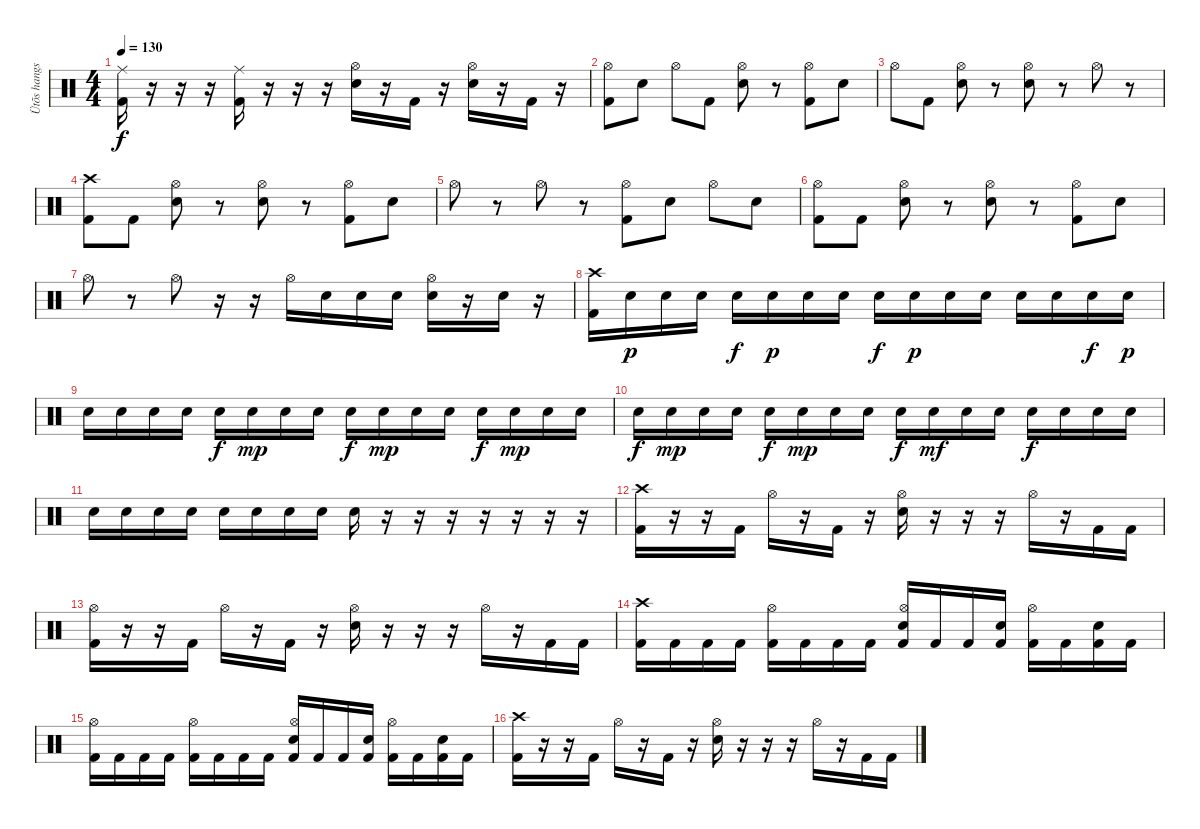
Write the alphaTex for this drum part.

\track ("Ütõs hangszer" "Ütõs hangs") {instrument percussion}
\staff {score}
\articulation defaults
\ts (4 4)
\tempo 130
\clef neutral
\ks c
("Ride (middle)" "Kick (hit) 2").16{dy f} r.16 r.16 r.16 ("Ride (middle)" "Kick (hit) 2").16 r.16 r.16 r.16 ("Hi-Hat (open)" "Snare (hit) 2").16 r.16 "Kick (hit) 2".16 r.16 ("Hi-Hat (open)" "Snare (hit) 2").16 r.16 "Kick (hit) 2".16 r.16 |
("Hi-Hat (open)" "Kick (hit) 2").8 "Snare (hit) 2".8 "Hi-Hat (open)".8 "Kick (hit) 2".8 ("Hi-Hat (open)" "Snare (hit) 2").8 r.8 ("Hi-Hat (open)" "Kick (hit) 2").8 "Snare (hit) 2".8 |
"Hi-Hat (open)".8 "Kick (hit) 2".8 ("Hi-Hat (open)" "Snare (hit) 2").8 r.8 ("Hi-Hat (open)" "Snare (hit) 2").8 r.8 "Hi-Hat (open)".8 r.8 |
("Crash high (hit)" "Kick (hit) 2").8 "Kick (hit) 2".8 ("Hi-Hat (open)" "Snare (hit) 2").8 r.8 ("Hi-Hat (open)" "Snare (hit) 2").8 r.8 ("Hi-Hat (open)" "Kick (hit) 2").8 "Snare (hit) 2".8 |
"Hi-Hat (open)".8 r.8 "Hi-Hat (open)".8 r.8 ("Hi-Hat (open)" "Kick (hit) 2").8 "Snare (hit) 2".8 "Hi-Hat (open)".8 "Snare (hit) 2".8 |
("Hi-Hat (open)" "Kick (hit) 2").8 "Kick (hit) 2".8 ("Hi-Hat (open)" "Snare (hit) 2").8 r.8 ("Hi-Hat (open)" "Snare (hit) 2").8 r.8 ("Hi-Hat (open)" "Kick (hit) 2").8 "Snare (hit) 2".8 |
"Hi-Hat (open)".8 r.8 "Hi-Hat (open)".8 r.16 r.16 "Hi-Hat (open)".16 "Snare (hit) 2".16 "Snare (hit) 2".16 "Snare (hit) 2".16 ("Hi-Hat (open)" "Snare (hit) 2").16 r.16 "Snare (hit) 2".16 r.16 |
("Crash high (hit)" "Kick (hit) 2").16 "Snare (hit) 2".16{dy p} "Snare (hit) 2".16 "Snare (hit) 2".16 "Snare (hit) 2".16{dy f} "Snare (hit) 2".16{dy p} "Snare (hit) 2".16 "Snare (hit) 2".16 "Snare (hit) 2".16{dy f} "Snare (hit) 2".16{dy p} "Snare (hit) 2".16 "Snare (hit) 2".16 "Snare (hit) 2".16 "Snare (hit) 2".16 "Snare (hit) 2".16{dy f} "Snare (hit) 2".16{dy p} |
"Snare (hit) 2".16 "Snare (hit) 2".16 "Snare (hit) 2".16 "Snare (hit) 2".16 "Snare (hit) 2".16{dy f} "Snare (hit) 2".16{dy mp} "Snare (hit) 2".16 "Snare (hit) 2".16 "Snare (hit) 2".16{dy f} "Snare (hit) 2".16{dy mp} "Snare (hit) 2".16 "Snare (hit) 2".16 "Snare (hit) 2".16{dy f} "Snare (hit) 2".16{dy mp} "Snare (hit) 2".16 "Snare (hit) 2".16 |
"Snare (hit) 2".16{dy f} "Snare (hit) 2".16{dy mp} "Snare (hit) 2".16 "Snare (hit) 2".16 "Snare (hit) 2".16{dy f} "Snare (hit) 2".16{dy mp} "Snare (hit) 2".16 "Snare (hit) 2".16 "Snare (hit) 2".16{dy f} "Snare (hit) 2".16{dy mf} "Snare (hit) 2".16 "Snare (hit) 2".16 "Snare (hit) 2".16{dy f} "Snare (hit) 2".16 "Snare (hit) 2".16 "Snare (hit) 2".16 |
"Snare (hit) 2".16 "Snare (hit) 2".16 "Snare (hit) 2".16 "Snare (hit) 2".16 "Snare (hit) 2".16 "Snare (hit) 2".16 "Snare (hit) 2".16 "Snare (hit) 2".16 "Snare (hit) 2".16 r.16 r.16 r.16 r.16 r.16 r.16 r.16 |
("Crash high (hit)" "Kick (hit) 2").16 r.16 r.16 "Kick (hit) 2".16 "Hi-Hat (open)".16 r.16 "Kick (hit) 2".16 r.16 ("Hi-Hat (open)" "Snare (hit) 2").16 r.16 r.16 r.16 "Hi-Hat (open)".16 r.16 "Kick (hit) 2".16 "Kick (hit) 2".16 |
("Hi-Hat (open)" "Kick (hit) 2").16 r.16 r.16 "Kick (hit) 2".16 "Hi-Hat (open)".16 r.16 "Kick (hit) 2".16 r.16 ("Hi-Hat (open)" "Snare (hit) 2").16 r.16 r.16 r.16 "Hi-Hat (open)".16 r.16 "Kick (hit) 2".16 "Kick (hit) 2".16 |
("Crash high (hit)" "Kick (hit) 2").16 "Kick (hit) 2".16 "Kick (hit) 2".16 "Kick (hit) 2".16 ("Hi-Hat (open)" "Kick (hit) 2").16 "Kick (hit) 2".16 "Kick (hit) 2".16 "Kick (hit) 2".16 ("Hi-Hat (open)" "Snare (hit) 2" "Kick (hit) 2").16 "Kick (hit) 2".16 "Kick (hit) 2".16 ("Snare (hit) 2" "Kick (hit) 2").16 ("Hi-Hat (open)" "Kick (hit) 2").16 "Kick (hit) 2".16 ("Snare (hit) 2" "Kick (hit) 2").16 "Kick (hit) 2".16 |
("Hi-Hat (open)" "Kick (hit) 2").16 "Kick (hit) 2".16 "Kick (hit) 2".16 "Kick (hit) 2".16 ("Hi-Hat (open)" "Kick (hit) 2").16 "Kick (hit) 2".16 "Kick (hit) 2".16 "Kick (hit) 2".16 ("Hi-Hat (open)" "Snare (hit) 2" "Kick (hit) 2").16 "Kick (hit) 2".16 "Kick (hit) 2".16 ("Snare (hit) 2" "Kick (hit) 2").16 ("Hi-Hat (open)" "Kick (hit) 2").16 "Kick (hit) 2".16 ("Snare (hit) 2" "Kick (hit) 2").16 "Kick (hit) 2".16 |
("Crash high (hit)" "Kick (hit) 2").16 r.16 r.16 "Kick (hit) 2".16 "Hi-Hat (open)".16 r.16 "Kick (hit) 2".16 r.16 ("Hi-Hat (open)" "Snare (hit) 2").16 r.16 r.16 r.16 "Hi-Hat (open)".16 r.16 "Kick (hit) 2".16 "Kick (hit) 2".16
